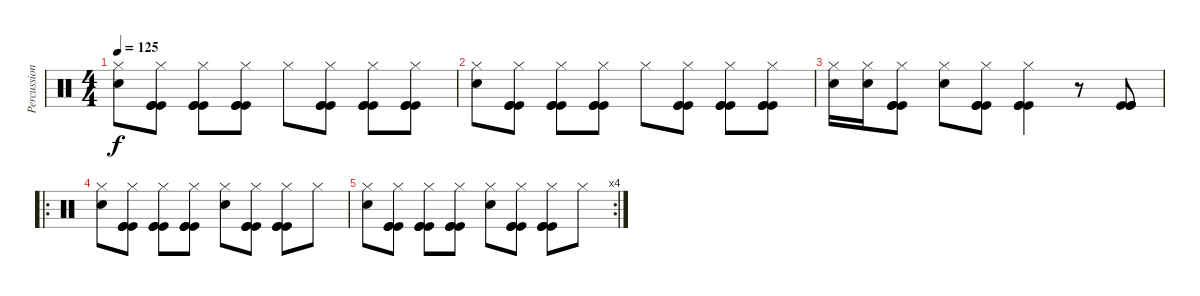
\track ("Percussion" "Percussion") {instrument percussion}
\staff {score}
\articulation defaults
\ts (4 4)
\tempo 125
\clef neutral
\ks c
("Electric Snare (hit)" "Hi-Hat (closed)").8{dy f} ("Kick (hit)" "Kick (hit)" "Kick (hit)" "Hi-Hat (closed)").8 ("Kick (hit)" "Kick (hit)" "Kick (hit)" "Hi-Hat (closed)").8 ("Kick (hit)" "Kick (hit)" "Kick (hit)" "Hi-Hat (closed)").8 "Hi-Hat (closed)".8 ("Kick (hit)" "Kick (hit)" "Kick (hit)" "Hi-Hat (closed)").8 ("Kick (hit)" "Kick (hit)" "Kick (hit)" "Hi-Hat (closed)").8 ("Kick (hit)" "Kick (hit)" "Kick (hit)" "Hi-Hat (closed)").8 |
("Electric Snare (hit)" "Hi-Hat (closed)").8 ("Kick (hit)" "Kick (hit)" "Kick (hit)" "Hi-Hat (closed)").8 ("Kick (hit)" "Kick (hit)" "Kick (hit)" "Hi-Hat (closed)").8 ("Kick (hit)" "Kick (hit)" "Kick (hit)" "Hi-Hat (closed)").8 "Hi-Hat (closed)".8 ("Kick (hit)" "Kick (hit)" "Kick (hit)" "Hi-Hat (closed)").8 ("Kick (hit)" "Kick (hit)" "Kick (hit)" "Hi-Hat (closed)").8 ("Kick (hit)" "Kick (hit)" "Kick (hit)" "Hi-Hat (closed)").8 |
("Electric Snare (hit)" "Hi-Hat (closed)").16 ("Electric Snare (hit)" "Hi-Hat (closed)").16 ("Kick (hit)" "Kick (hit)" "Kick (hit)" "Hi-Hat (closed)").8 ("Electric Snare (hit)" "Hi-Hat (closed)").8 ("Kick (hit)" "Kick (hit)" "Kick (hit)" "Hi-Hat (closed)").8 ("Kick (hit)" "Kick (hit)" "Kick (hit)" "Hi-Hat (closed)").4 r.8 ("Kick (hit)" "Kick (hit)" "Kick (hit)").8 |
\ro
("Electric Snare (hit)" "Hi-Hat (closed)").8 ("Kick (hit)" "Kick (hit)" "Kick (hit)" "Hi-Hat (closed)").8 ("Kick (hit)" "Kick (hit)" "Kick (hit)" "Hi-Hat (closed)").8 ("Kick (hit)" "Kick (hit)" "Kick (hit)" "Hi-Hat (closed)").8 ("Electric Snare (hit)" "Hi-Hat (closed)").8 ("Kick (hit)" "Kick (hit)" "Kick (hit)" "Hi-Hat (closed)").8 ("Kick (hit)" "Kick (hit)" "Kick (hit)" "Hi-Hat (closed)").8 "Hi-Hat (closed)".8 |
\rc 4
("Electric Snare (hit)" "Hi-Hat (closed)").8 ("Kick (hit)" "Kick (hit)" "Kick (hit)" "Hi-Hat (closed)").8 ("Kick (hit)" "Kick (hit)" "Kick (hit)" "Hi-Hat (closed)").8 ("Kick (hit)" "Kick (hit)" "Kick (hit)" "Hi-Hat (closed)").8 ("Electric Snare (hit)" "Hi-Hat (closed)").8 ("Kick (hit)" "Kick (hit)" "Kick (hit)" "Hi-Hat (closed)").8 ("Kick (hit)" "Kick (hit)" "Kick (hit)" "Hi-Hat (closed)").8 "Hi-Hat (closed)".8
